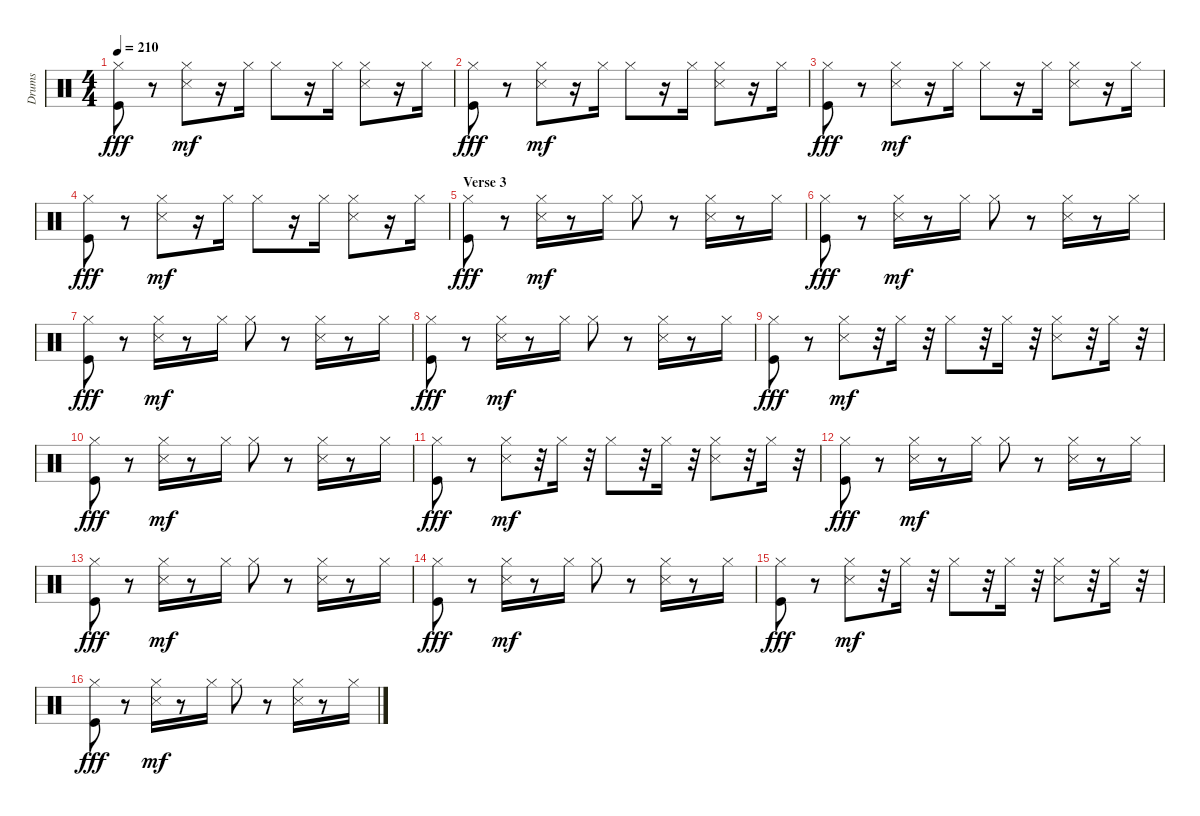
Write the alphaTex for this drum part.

\track ("Drums" "Drums") {instrument percussion}
\staff {score}
\articulation defaults
\ts (4 4)
\tempo 210
\clef neutral
\ks c
("Hi-Hat (closed)" "Kick (hit)").8{dy fff} r.8 ("Hi-Hat (closed)" "Snare (side stick) 3").8{dy mf} r.16 "Hi-Hat (closed)".16 "Hi-Hat (closed)".8 r.16 "Hi-Hat (closed)".16 ("Hi-Hat (closed)" "Snare (side stick) 3").8 r.16 "Hi-Hat (closed)".16 |
("Hi-Hat (closed)" "Kick (hit)").8{dy fff} r.8 ("Hi-Hat (closed)" "Snare (side stick) 3").8{dy mf} r.16 "Hi-Hat (closed)".16 "Hi-Hat (closed)".8 r.16 "Hi-Hat (closed)".16 ("Hi-Hat (closed)" "Snare (side stick) 3").8 r.16 "Hi-Hat (closed)".16 |
("Hi-Hat (closed)" "Kick (hit)").8{dy fff} r.8 ("Hi-Hat (closed)" "Snare (side stick) 3").8{dy mf} r.16 "Hi-Hat (closed)".16 "Hi-Hat (closed)".8 r.16 "Hi-Hat (closed)".16 ("Hi-Hat (closed)" "Snare (side stick) 3").8 r.16 "Hi-Hat (closed)".16 |
("Hi-Hat (closed)" "Kick (hit)").8{dy fff} r.8 ("Hi-Hat (closed)" "Snare (side stick) 3").8{dy mf} r.16 "Hi-Hat (closed)".16 "Hi-Hat (closed)".8 r.16 "Hi-Hat (closed)".16 ("Hi-Hat (closed)" "Snare (side stick) 3").8 r.16 "Hi-Hat (closed)".16 |
\section ("" "Verse 3")
("Hi-Hat (closed)" "Kick (hit)").8{dy fff} r.8 ("Hi-Hat (closed)" "Snare (side stick) 3").16{dy mf} r.8 "Hi-Hat (closed)".16 "Hi-Hat (closed)".8 r.8 ("Hi-Hat (closed)" "Snare (side stick) 3").16 r.8 "Hi-Hat (closed)".16 |
("Hi-Hat (closed)" "Kick (hit)").8{dy fff} r.8 ("Hi-Hat (closed)" "Snare (side stick) 3").16{dy mf} r.8 "Hi-Hat (closed)".16 "Hi-Hat (closed)".8 r.8 ("Hi-Hat (closed)" "Snare (side stick) 3").16 r.8 "Hi-Hat (closed)".16 |
("Hi-Hat (closed)" "Kick (hit)").8{dy fff} r.8 ("Hi-Hat (closed)" "Snare (side stick) 3").16{dy mf} r.8 "Hi-Hat (closed)".16 "Hi-Hat (closed)".8 r.8 ("Hi-Hat (closed)" "Snare (side stick) 3").16 r.8 "Hi-Hat (closed)".16 |
("Hi-Hat (closed)" "Kick (hit)").8{dy fff} r.8 ("Hi-Hat (closed)" "Snare (side stick) 3").16{dy mf} r.8 "Hi-Hat (closed)".16 "Hi-Hat (closed)".8 r.8 ("Hi-Hat (closed)" "Snare (side stick) 3").16 r.8 "Hi-Hat (closed)".16 |
("Hi-Hat (closed)" "Kick (hit)").8{dy fff} r.8 ("Hi-Hat (closed)" "Snare (side stick) 3").8{dy mf} r.32 "Hi-Hat (closed)".16 r.32 "Hi-Hat (closed)".8 r.32 "Hi-Hat (closed)".16 r.32 ("Hi-Hat (closed)" "Snare (side stick) 3").8 r.32 "Hi-Hat (closed)".16 r.32 |
("Hi-Hat (closed)" "Kick (hit)").8{dy fff} r.8 ("Hi-Hat (closed)" "Snare (side stick) 3").16{dy mf} r.8 "Hi-Hat (closed)".16 "Hi-Hat (closed)".8 r.8 ("Hi-Hat (closed)" "Snare (side stick) 3").16 r.8 "Hi-Hat (closed)".16 |
("Hi-Hat (closed)" "Kick (hit)").8{dy fff} r.8 ("Hi-Hat (closed)" "Snare (side stick) 3").8{dy mf} r.32 "Hi-Hat (closed)".16 r.32 "Hi-Hat (closed)".8 r.32 "Hi-Hat (closed)".16 r.32 ("Hi-Hat (closed)" "Snare (side stick) 3").8 r.32 "Hi-Hat (closed)".16 r.32 |
("Hi-Hat (closed)" "Kick (hit)").8{dy fff} r.8 ("Hi-Hat (closed)" "Snare (side stick) 3").16{dy mf} r.8 "Hi-Hat (closed)".16 "Hi-Hat (closed)".8 r.8 ("Hi-Hat (closed)" "Snare (side stick) 3").16 r.8 "Hi-Hat (closed)".16 |
("Hi-Hat (closed)" "Kick (hit)").8{dy fff} r.8 ("Hi-Hat (closed)" "Snare (side stick) 3").16{dy mf} r.8 "Hi-Hat (closed)".16 "Hi-Hat (closed)".8 r.8 ("Hi-Hat (closed)" "Snare (side stick) 3").16 r.8 "Hi-Hat (closed)".16 |
("Hi-Hat (closed)" "Kick (hit)").8{dy fff} r.8 ("Hi-Hat (closed)" "Snare (side stick) 3").16{dy mf} r.8 "Hi-Hat (closed)".16 "Hi-Hat (closed)".8 r.8 ("Hi-Hat (closed)" "Snare (side stick) 3").16 r.8 "Hi-Hat (closed)".16 |
("Hi-Hat (closed)" "Kick (hit)").8{dy fff} r.8 ("Hi-Hat (closed)" "Snare (side stick) 3").8{dy mf} r.32 "Hi-Hat (closed)".16 r.32 "Hi-Hat (closed)".8 r.32 "Hi-Hat (closed)".16 r.32 ("Hi-Hat (closed)" "Snare (side stick) 3").8 r.32 "Hi-Hat (closed)".16 r.32 |
("Hi-Hat (closed)" "Kick (hit)").8{dy fff} r.8 ("Hi-Hat (closed)" "Snare (side stick) 3").16{dy mf} r.8 "Hi-Hat (closed)".16 "Hi-Hat (closed)".8 r.8 ("Hi-Hat (closed)" "Snare (side stick) 3").16 r.8 "Hi-Hat (closed)".16
